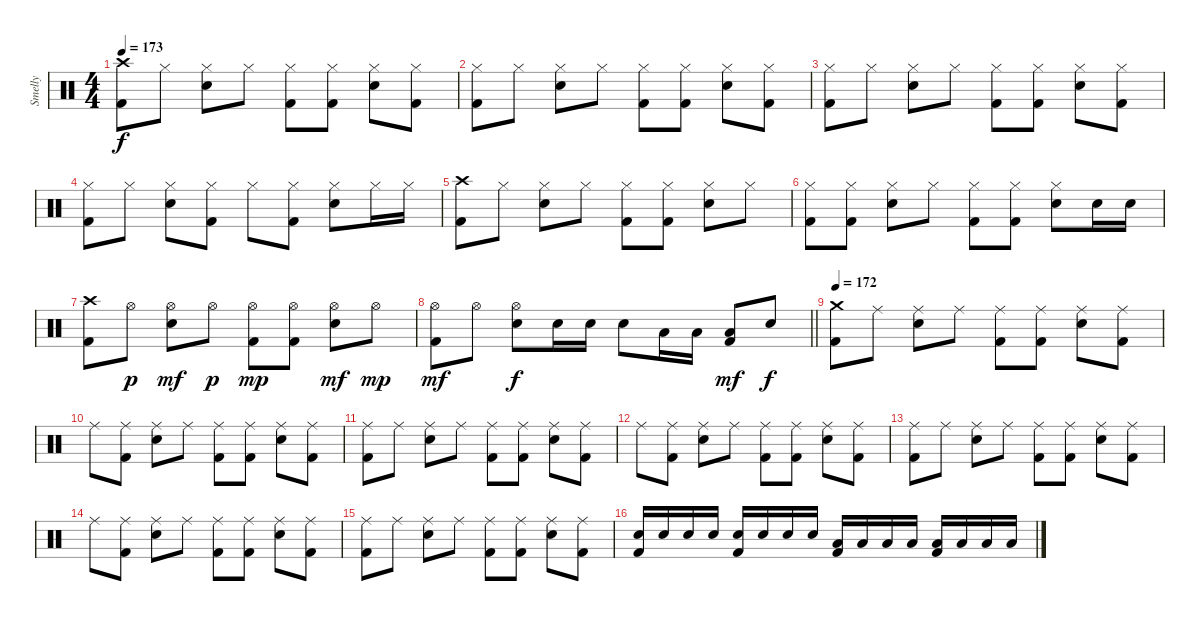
\track ("Smelly" "Smelly") {instrument percussion}
\staff {score}
\articulation defaults
\ts (4 4)
\tempo 173
\clef neutral
\ks c
("Crash high (hit)" "Kick (hit) 2").8{dy f} "Hi-Hat (closed)".8 ("Hi-Hat (closed)" "Electric Snare (hit)").8 "Hi-Hat (closed)".8 ("Hi-Hat (closed)" "Kick (hit) 2").8 ("Hi-Hat (closed)" "Kick (hit) 2").8 ("Hi-Hat (closed)" "Electric Snare (hit)").8 ("Hi-Hat (closed)" "Kick (hit) 2").8 |
("Hi-Hat (closed)" "Kick (hit) 2").8 "Hi-Hat (closed)".8 ("Hi-Hat (closed)" "Electric Snare (hit)").8 "Hi-Hat (closed)".8 ("Hi-Hat (closed)" "Kick (hit) 2").8 ("Hi-Hat (closed)" "Kick (hit) 2").8 ("Hi-Hat (closed)" "Electric Snare (hit)").8 ("Hi-Hat (closed)" "Kick (hit) 2").8 |
("Hi-Hat (closed)" "Kick (hit) 2").8 "Hi-Hat (closed)".8 ("Hi-Hat (closed)" "Electric Snare (hit)").8 "Hi-Hat (closed)".8 ("Hi-Hat (closed)" "Kick (hit) 2").8 ("Hi-Hat (closed)" "Kick (hit) 2").8 ("Hi-Hat (closed)" "Electric Snare (hit)").8 ("Hi-Hat (closed)" "Kick (hit) 2").8 |
("Hi-Hat (closed)" "Kick (hit) 2").8 "Hi-Hat (closed)".8 ("Hi-Hat (closed)" "Electric Snare (hit)").8 ("Hi-Hat (closed)" "Kick (hit) 2").8 "Hi-Hat (closed)".8 ("Hi-Hat (closed)" "Kick (hit) 2").8 ("Hi-Hat (closed)" "Electric Snare (hit)").8 "Hi-Hat (closed)".16 "Hi-Hat (closed)".16 |
("Crash high (hit)" "Kick (hit) 2").8 "Hi-Hat (closed)".8 ("Hi-Hat (closed)" "Electric Snare (hit)").8 "Hi-Hat (closed)".8 ("Hi-Hat (closed)" "Kick (hit) 2").8 ("Hi-Hat (closed)" "Kick (hit) 2").8 ("Hi-Hat (closed)" "Electric Snare (hit)").8 "Hi-Hat (closed)".8 |
("Hi-Hat (closed)" "Kick (hit) 2").8 ("Hi-Hat (closed)" "Kick (hit) 2").8 ("Hi-Hat (closed)" "Electric Snare (hit)").8 "Hi-Hat (closed)".8 ("Hi-Hat (closed)" "Kick (hit) 2").8 ("Hi-Hat (closed)" "Kick (hit) 2").8 ("Hi-Hat (closed)" "Electric Snare (hit)").8 "Electric Snare (hit)".16 "Electric Snare (hit)".16 |
("Crash high (hit)" "Kick (hit) 2").8 "Hi-Hat (open)".8{dy p} ("Hi-Hat (open)" "Electric Snare (hit)").8{dy mf} "Hi-Hat (open)".8{dy p} ("Hi-Hat (open)" "Kick (hit) 2").8{dy mp} ("Hi-Hat (open)" "Kick (hit) 2").8 ("Hi-Hat (open)" "Electric Snare (hit)").8{dy mf} "Hi-Hat (open)".8{dy mp} |
\barLineRight lightlight
("Hi-Hat (open)" "Kick (hit) 2").8{dy mf} "Hi-Hat (open)".8 ("Hi-Hat (open)" "Electric Snare (hit)").8{dy f} "Electric Snare (hit)".16 "Electric Snare (hit)".16 "Electric Snare (hit)".8 "Low Tom (hit)".16 "Low Tom (hit)".16 ("Low Floor Tom (hit)" "Kick (hit) 2").8{dy mf} "Electric Snare (hit)".8{dy f} |
\section ("" "")
\tempo 172
("Crash medium (hit)" "Kick (hit) 2").8 "Ride (middle)".8 ("Ride (middle)" "Electric Snare (hit)").8 "Ride (middle)".8 ("Ride (middle)" "Kick (hit) 2").8 ("Ride (middle)" "Kick (hit) 2").8 ("Ride (middle)" "Electric Snare (hit)").8 ("Ride (middle)" "Kick (hit) 2").8 |
"Ride (middle)".8 ("Ride (middle)" "Kick (hit) 2").8 ("Ride (middle)" "Electric Snare (hit)").8 "Ride (middle)".8 ("Ride (middle)" "Kick (hit) 2").8 ("Ride (middle)" "Kick (hit) 2").8 ("Ride (middle)" "Electric Snare (hit)").8 ("Ride (middle)" "Kick (hit) 2").8 |
("Ride (middle)" "Kick (hit) 2").8 "Ride (middle)".8 ("Ride (middle)" "Electric Snare (hit)").8 "Ride (middle)".8 ("Ride (middle)" "Kick (hit) 2").8 ("Ride (middle)" "Kick (hit) 2").8 ("Ride (middle)" "Electric Snare (hit)").8 ("Ride (middle)" "Kick (hit) 2").8 |
"Ride (middle)".8 ("Ride (middle)" "Kick (hit) 2").8 ("Ride (middle)" "Electric Snare (hit)").8 "Ride (middle)".8 ("Ride (middle)" "Kick (hit) 2").8 ("Ride (middle)" "Kick (hit) 2").8 ("Ride (middle)" "Electric Snare (hit)").8 ("Ride (middle)" "Kick (hit) 2").8 |
("Ride (middle)" "Kick (hit) 2").8 "Ride (middle)".8 ("Ride (middle)" "Electric Snare (hit)").8 "Ride (middle)".8 ("Ride (middle)" "Kick (hit) 2").8 ("Ride (middle)" "Kick (hit) 2").8 ("Ride (middle)" "Electric Snare (hit)").8 ("Ride (middle)" "Kick (hit) 2").8 |
"Ride (middle)".8 ("Ride (middle)" "Kick (hit) 2").8 ("Ride (middle)" "Electric Snare (hit)").8 "Ride (middle)".8 ("Ride (middle)" "Kick (hit) 2").8 ("Ride (middle)" "Kick (hit) 2").8 ("Ride (middle)" "Electric Snare (hit)").8 ("Ride (middle)" "Kick (hit) 2").8 |
("Ride (middle)" "Kick (hit) 2").8 "Ride (middle)".8 ("Ride (middle)" "Electric Snare (hit)").8 "Ride (middle)".8 ("Ride (middle)" "Kick (hit) 2").8 ("Ride (middle)" "Kick (hit) 2").8 ("Ride (middle)" "Electric Snare (hit)").8 ("Ride (middle)" "Kick (hit) 2").8 |
("Electric Snare (hit)" "Kick (hit) 2").16 "Electric Snare (hit)".16 "Electric Snare (hit)".16 "Electric Snare (hit)".16 ("Electric Snare (hit)" "Kick (hit) 2").16 "Electric Snare (hit)".16 "Electric Snare (hit)".16 "Electric Snare (hit)".16 ("Low Tom (hit)" "Kick (hit) 2").16 "Low Tom (hit)".16 "Low Tom (hit)".16 "Low Tom (hit)".16 ("Low Floor Tom (hit)" "Kick (hit) 2").16 "Low Floor Tom (hit)".16 "Low Floor Tom (hit)".16 "Low Floor Tom (hit)".16
